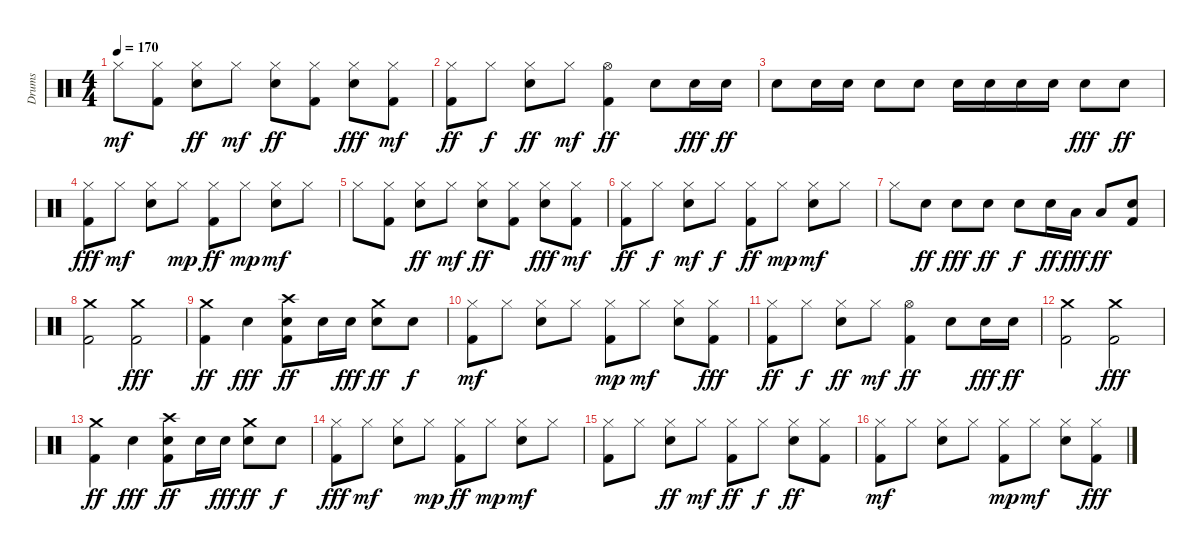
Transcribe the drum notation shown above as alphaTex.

\track ("Drums" "Drums") {instrument percussion}
\staff {score}
\articulation defaults
\ts (4 4)
\tempo 170
\clef neutral
\ks c "Hi-Hat (closed)".8{dy mf}
("Hi-Hat (closed)" "Kick (hit) 2").8 ("Hi-Hat (closed)" "Snare (hit) 2").8{dy ff} "Hi-Hat (closed)".8{dy mf} ("Hi-Hat (closed)" "Snare (hit) 2").8{dy ff} ("Hi-Hat (closed)" "Kick (hit) 2").8 ("Hi-Hat (closed)" "Snare (hit) 2").8{dy fff} ("Hi-Hat (closed)" "Kick (hit) 2").8{dy mf} |
("Hi-Hat (closed)" "Kick (hit) 2").8{dy ff} "Hi-Hat (closed)".8{dy f} ("Hi-Hat (closed)" "Snare (hit) 2").8{dy ff} "Hi-Hat (closed)".8{dy mf} ("Kick (hit) 2" "Hi-Hat (open)").4{dy ff} "Snare (hit) 2".8 "Snare (hit) 2".16{dy fff} "Snare (hit) 2".16{dy ff} |
"Snare (hit) 2".8 "Snare (hit) 2".16 "Snare (hit) 2".16 "Snare (hit) 2".8 "Snare (hit) 2".8 "Snare (hit) 2".16 "Snare (hit) 2".16 "Snare (hit) 2".16 "Snare (hit) 2".16 "Snare (hit) 2".8{dy fff} "Snare (hit) 2".8{dy ff} |
("Hi-Hat (closed)" "Kick (hit) 2").8{dy fff} "Hi-Hat (closed)".8{dy mf} ("Hi-Hat (closed)" "Snare (hit) 2").8 "Hi-Hat (closed)".8{dy mp} ("Hi-Hat (closed)" "Kick (hit) 2").8{dy ff} "Hi-Hat (closed)".8{dy mp} ("Hi-Hat (closed)" "Snare (hit) 2").8{dy mf} "Hi-Hat (closed)".8 |
"Hi-Hat (closed)".8 ("Hi-Hat (closed)" "Kick (hit) 2").8 ("Hi-Hat (closed)" "Snare (hit) 2").8{dy ff} "Hi-Hat (closed)".8{dy mf} ("Hi-Hat (closed)" "Snare (hit) 2").8{dy ff} ("Hi-Hat (closed)" "Kick (hit) 2").8 ("Hi-Hat (closed)" "Snare (hit) 2").8{dy fff} ("Hi-Hat (closed)" "Kick (hit) 2").8{dy mf} |
("Hi-Hat (closed)" "Kick (hit) 2").8{dy ff} "Hi-Hat (closed)".8{dy f} ("Hi-Hat (closed)" "Snare (hit) 2").8{dy mf} "Hi-Hat (closed)".8{dy f} ("Hi-Hat (closed)" "Kick (hit) 2").8{dy ff} "Hi-Hat (closed)".8{dy mp} ("Hi-Hat (closed)" "Snare (hit) 2").8{dy mf} "Hi-Hat (closed)".8 |
"Hi-Hat (closed)".8 "Snare (hit) 2".8{dy ff} "Snare (hit) 2".8{dy fff} "Snare (hit) 2".8{dy ff} "Snare (hit) 2".8{dy f} "Snare (hit) 2".16{dy ff} "Low Tom (hit)".16{dy fff} "Low Tom (hit)".8{dy ff} ("Snare (hit) 2" "Kick (hit) 2").8 |
("Kick (hit) 2" "Crash medium (hit)").2 ("Kick (hit) 2" "Crash medium (hit)").2{dy fff} |
("Crash medium (hit)" "Kick (hit) 2").4{dy ff} "Snare (hit) 2".4{dy fff} ("Snare (hit) 2" "Kick (hit) 2" "Crash high (hit)").8{dy ff} "Snare (hit) 2".16 "Snare (hit) 2".16{dy fff} ("Snare (hit) 2" "Crash medium (hit)").8{dy ff} "Snare (hit) 2".8{dy f} |
("Hi-Hat (closed)" "Kick (hit) 2").8{dy mf} "Hi-Hat (closed)".8 ("Hi-Hat (closed)" "Snare (hit) 2").8 "Hi-Hat (closed)".8 ("Hi-Hat (closed)" "Kick (hit) 2").8{dy mp} "Hi-Hat (closed)".8{dy mf} ("Hi-Hat (closed)" "Snare (hit) 2").8 ("Hi-Hat (closed)" "Kick (hit) 2").8{dy fff} |
("Hi-Hat (closed)" "Kick (hit) 2").8{dy ff} "Hi-Hat (closed)".8{dy f} ("Hi-Hat (closed)" "Snare (hit) 2").8{dy ff} "Hi-Hat (closed)".8{dy mf} ("Kick (hit) 2" "Hi-Hat (open)").4{dy ff} "Snare (hit) 2".8 "Snare (hit) 2".16{dy fff} "Snare (hit) 2".16{dy ff} |
("Kick (hit) 2" "Crash medium (hit)").2 ("Kick (hit) 2" "Crash medium (hit)").2{dy fff} |
("Crash medium (hit)" "Kick (hit) 2").4{dy ff} "Snare (hit) 2".4{dy fff} ("Snare (hit) 2" "Kick (hit) 2" "Crash high (hit)").8{dy ff} "Snare (hit) 2".16 "Snare (hit) 2".16{dy fff} ("Snare (hit) 2" "Crash medium (hit)").8{dy ff} "Snare (hit) 2".8{dy f} |
("Hi-Hat (closed)" "Kick (hit) 2").8{dy fff} "Hi-Hat (closed)".8{dy mf} ("Hi-Hat (closed)" "Snare (hit) 2").8 "Hi-Hat (closed)".8{dy mp} ("Hi-Hat (closed)" "Kick (hit) 2").8{dy ff} "Hi-Hat (closed)".8{dy mp} ("Hi-Hat (closed)" "Snare (hit) 2").8{dy mf} "Hi-Hat (closed)".8 |
("Hi-Hat (closed)" "Kick (hit) 2").8 "Hi-Hat (closed)".8 ("Hi-Hat (closed)" "Snare (hit) 2").8{dy ff} "Hi-Hat (closed)".8{dy mf} ("Hi-Hat (closed)" "Kick (hit) 2").8{dy ff} "Hi-Hat (closed)".8{dy f} ("Hi-Hat (closed)" "Snare (hit) 2").8{dy ff} ("Hi-Hat (closed)" "Kick (hit) 2").8 |
("Hi-Hat (closed)" "Kick (hit) 2").8{dy mf} "Hi-Hat (closed)".8 ("Hi-Hat (closed)" "Snare (hit) 2").8 "Hi-Hat (closed)".8 ("Hi-Hat (closed)" "Kick (hit) 2").8{dy mp} "Hi-Hat (closed)".8{dy mf} ("Hi-Hat (closed)" "Snare (hit) 2").8 ("Hi-Hat (closed)" "Kick (hit) 2").8{dy fff}
